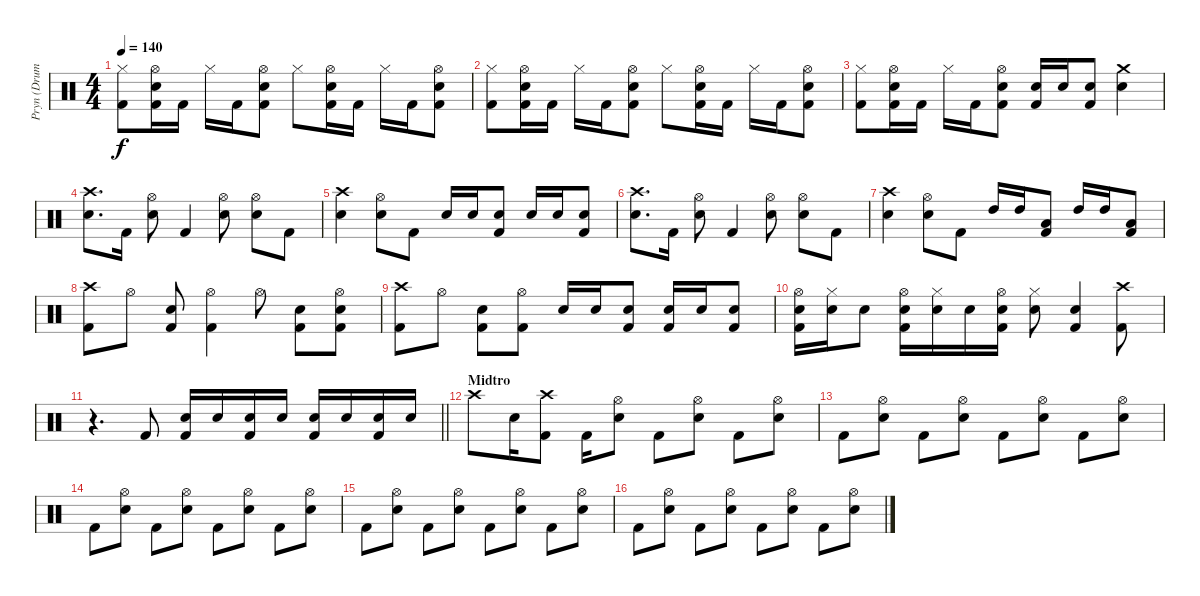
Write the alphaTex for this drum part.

\track ("Pryn (Drums)" "Pryn (Drum") {instrument percussion}
\staff {score}
\articulation defaults
\ts (4 4)
\tempo 140
\clef neutral
\ks c
("Kick (hit) 2" "Hi-Hat (closed)").8{dy f} ("Snare (hit) 2" "Hi-Hat (open)" "Kick (hit) 2").16 "Kick (hit) 2".16 "Hi-Hat (closed)".16 "Kick (hit) 2".16 ("Snare (hit) 2" "Hi-Hat (open)" "Kick (hit) 2").8 "Hi-Hat (closed)".8 ("Snare (hit) 2" "Hi-Hat (open)" "Kick (hit) 2").16 "Kick (hit) 2".16 "Hi-Hat (closed)".16 "Kick (hit) 2".16 ("Snare (hit) 2" "Hi-Hat (open)" "Kick (hit) 2").8 |
("Kick (hit) 2" "Hi-Hat (closed)").8 ("Snare (hit) 2" "Hi-Hat (open)" "Kick (hit) 2").16 "Kick (hit) 2".16 "Hi-Hat (closed)".16 "Kick (hit) 2".16 ("Snare (hit) 2" "Hi-Hat (open)" "Kick (hit) 2").8 "Hi-Hat (closed)".8 ("Snare (hit) 2" "Hi-Hat (open)" "Kick (hit) 2").16 "Kick (hit) 2".16 "Hi-Hat (closed)".16 "Kick (hit) 2".16 ("Snare (hit) 2" "Hi-Hat (open)" "Kick (hit) 2").8 |
("Kick (hit) 2" "Hi-Hat (closed)").8 ("Snare (hit) 2" "Hi-Hat (open)" "Kick (hit) 2").16 "Kick (hit) 2".16 "Hi-Hat (closed)".16 "Kick (hit) 2".16 ("Snare (hit) 2" "Hi-Hat (open)" "Kick (hit) 2").8 ("Snare (hit) 2" "Kick (hit) 2").16 "Snare (hit) 2".16 ("Snare (hit) 2" "Kick (hit) 2").8 ("Snare (hit) 2" "Crash medium (hit)").4 |
("Crash high (hit)" "Snare (hit) 2").8{d} "Kick (hit) 2".16 ("Hi-Hat (open)" "Snare (hit) 2").8 "Kick (hit) 2".4 ("Hi-Hat (open)" "Snare (hit) 2").8 ("Hi-Hat (open)" "Snare (hit) 2").8 "Kick (hit) 2".8 |
("Crash high (hit)" "Snare (hit) 2").4 ("Hi-Hat (open)" "Snare (hit) 2").8 "Kick (hit) 2".8 "Snare (hit) 2".16 "Snare (hit) 2".16 ("Snare (hit) 2" "Kick (hit) 2").8 "Snare (hit) 2".16 "Snare (hit) 2".16 ("Snare (hit) 2" "Kick (hit) 2").8 |
("Crash high (hit)" "Snare (hit) 2").8{d} "Kick (hit) 2".16 ("Hi-Hat (open)" "Snare (hit) 2").8 "Kick (hit) 2".4 ("Hi-Hat (open)" "Snare (hit) 2").8 ("Hi-Hat (open)" "Snare (hit) 2").8 "Kick (hit) 2".8 |
("Crash high (hit)" "Snare (hit) 2").4 ("Hi-Hat (open)" "Snare (hit) 2").8 "Kick (hit) 2".8 "High Tom (hit)".16 "High Tom (hit)".16 ("Low Tom (hit)" "Kick (hit) 2").8 "High Tom (hit)".16 "High Tom (hit)".16 ("Low Tom (hit)" "Kick (hit) 2").8 |
("Crash high (hit)" "Kick (hit) 2").8 "Hi-Hat (open)".8 ("Snare (hit) 2" "Kick (hit) 2").8 ("Hi-Hat (open)" "Kick (hit) 2").4 "Hi-Hat (open)".8 ("Snare (hit) 2" "Kick (hit) 2").8 ("Hi-Hat (open)" "Snare (hit) 2" "Kick (hit) 2").8 |
("Crash high (hit)" "Kick (hit) 2").8 "Hi-Hat (open)".8 ("Snare (hit) 2" "Kick (hit) 2").8 ("Hi-Hat (open)" "Kick (hit) 2").8 "Snare (hit) 2".16 "Snare (hit) 2".16 ("Snare (hit) 2" "Kick (hit) 2").8 ("Snare (hit) 2" "Kick (hit) 2").16 "Snare (hit) 2".16 ("Snare (hit) 2" "Kick (hit) 2").8 |
("Snare (hit) 2" "Hi-Hat (open)" "Kick (hit) 2").16 ("Snare (hit) 2" "Hi-Hat (closed)").16 "Snare (hit) 2".8 ("Snare (hit) 2" "Hi-Hat (open)" "Kick (hit) 2").16 ("Snare (hit) 2" "Hi-Hat (closed)").16 "Snare (hit) 2".16 ("Snare (hit) 2" "Hi-Hat (open)" "Kick (hit) 2").16 ("Snare (hit) 2" "Hi-Hat (closed)").8 ("Snare (hit) 2" "Kick (hit) 2").4 ("Crash high (hit)" "Kick (hit) 2").8 |
\barLineRight lightlight
r.4{d} "Kick (hit) 2".8 ("Snare (hit) 2" "Kick (hit) 2").16 "Snare (hit) 2".16 ("Snare (hit) 2" "Kick (hit) 2").16 "Snare (hit) 2".16 ("Snare (hit) 2" "Kick (hit) 2").16 "Snare (hit) 2".16 ("Snare (hit) 2" "Kick (hit) 2").16 "Snare (hit) 2".16 |
\section ("" "Midtro")
"Crash high (hit)".8 "Snare (hit) 2".16 ("Crash high (hit)" "Kick (hit) 2").8 "Kick (hit) 2".16 ("Snare (hit) 2" "Hi-Hat (open)").8 "Kick (hit) 2".8 ("Snare (hit) 2" "Hi-Hat (open)").8 "Kick (hit) 2".8 ("Snare (hit) 2" "Hi-Hat (open)").8 |
"Kick (hit) 2".8 ("Snare (hit) 2" "Hi-Hat (open)").8 "Kick (hit) 2".8 ("Snare (hit) 2" "Hi-Hat (open)").8 "Kick (hit) 2".8 ("Snare (hit) 2" "Hi-Hat (open)").8 "Kick (hit) 2".8 ("Snare (hit) 2" "Hi-Hat (open)").8 |
"Kick (hit) 2".8 ("Snare (hit) 2" "Hi-Hat (open)").8 "Kick (hit) 2".8 ("Snare (hit) 2" "Hi-Hat (open)").8 "Kick (hit) 2".8 ("Snare (hit) 2" "Hi-Hat (open)").8 "Kick (hit) 2".8 ("Snare (hit) 2" "Hi-Hat (open)").8 |
"Kick (hit) 2".8 ("Snare (hit) 2" "Hi-Hat (open)").8 "Kick (hit) 2".8 ("Snare (hit) 2" "Hi-Hat (open)").8 "Kick (hit) 2".8 ("Snare (hit) 2" "Hi-Hat (open)").8 "Kick (hit) 2".8 ("Snare (hit) 2" "Hi-Hat (open)").8 |
"Kick (hit) 2".8 ("Snare (hit) 2" "Hi-Hat (open)").8 "Kick (hit) 2".8 ("Snare (hit) 2" "Hi-Hat (open)").8 "Kick (hit) 2".8 ("Snare (hit) 2" "Hi-Hat (open)").8 "Kick (hit) 2".8 ("Snare (hit) 2" "Hi-Hat (open)").8
